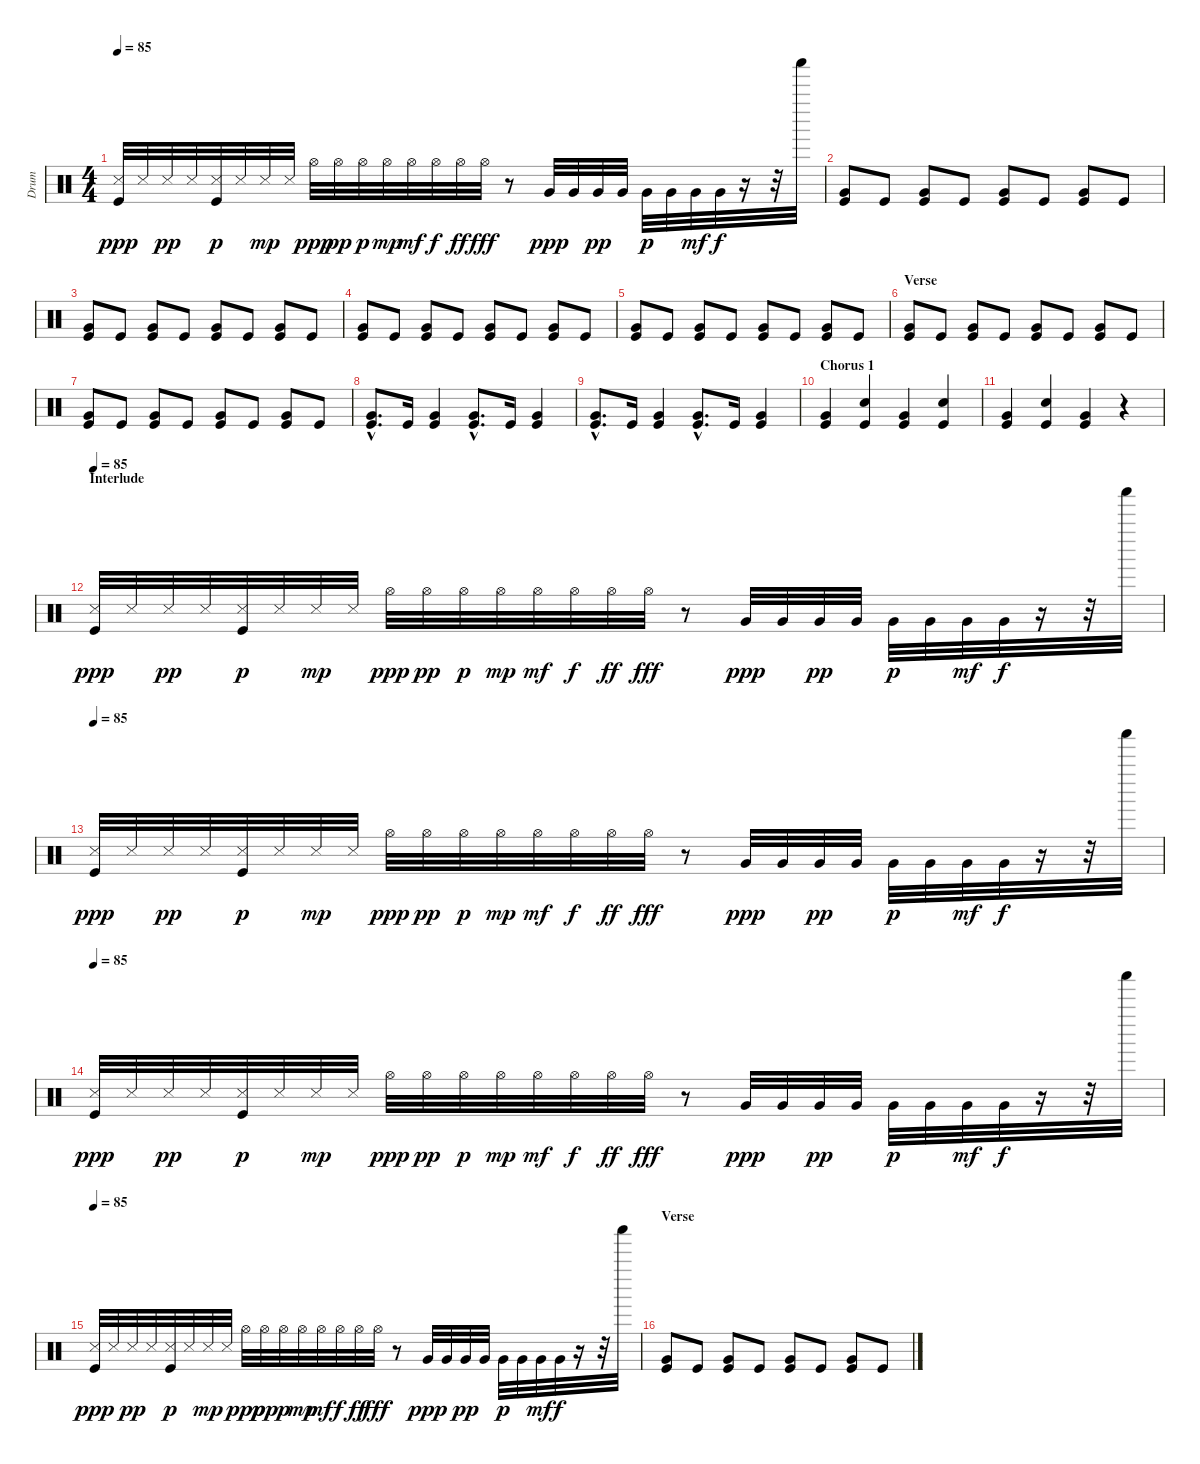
\track ("Drum" "Drum") {instrument percussion}
\staff {score}
\articulation defaults
\ts (4 4)
\tempo 85
\clef neutral
\ks c
("Snare (side stick) 3" "Kick (hit)").32{dy ppp} "Snare (side stick) 3".32 "Snare (side stick) 3".32{dy pp} "Snare (side stick) 3".32 ("Snare (side stick) 3" "Kick (hit)").32{dy p} "Snare (side stick) 3".32 "Snare (side stick) 3".32{dy mp} "Snare (side stick) 3".32 "Hi-Hat (open)".32{dy ppp} "Hi-Hat (open)".32{dy pp} "Hi-Hat (open)".32{dy p} "Hi-Hat (open)".32{dy mp} "Hi-Hat (open)".32{dy mf} "Hi-Hat (open)".32{dy f} "Hi-Hat (open)".32{dy ff} "Hi-Hat (open)".32{dy fff} r.8 "Very Low Tom (hit)".32{dy ppp} "Very Low Tom (hit)".32 "Very Low Tom (hit)".32{dy pp} "Very Low Tom (hit)".32 "Very Low Tom (hit)".32{dy p} "Very Low Tom (hit)".32 "Very Low Tom (hit)".32{dy mf} "Very Low Tom (hit)".32{dy f} r.16 r.32 "Shaker (hit)".32 |
("Very Low Tom (hit)" "Kick (hit)").8 "Kick (hit)".8 ("Very Low Tom (hit)" "Kick (hit)").8 "Kick (hit)".8 ("Very Low Tom (hit)" "Kick (hit)").8 "Kick (hit)".8 ("Very Low Tom (hit)" "Kick (hit)").8 "Kick (hit)".8 |
("Very Low Tom (hit)" "Kick (hit)").8 "Kick (hit)".8 ("Very Low Tom (hit)" "Kick (hit)").8 "Kick (hit)".8 ("Very Low Tom (hit)" "Kick (hit)").8 "Kick (hit)".8 ("Very Low Tom (hit)" "Kick (hit)").8 "Kick (hit)".8 |
("Very Low Tom (hit)" "Kick (hit)").8 "Kick (hit)".8 ("Very Low Tom (hit)" "Kick (hit)").8 "Kick (hit)".8 ("Very Low Tom (hit)" "Kick (hit)").8 "Kick (hit)".8 ("Very Low Tom (hit)" "Kick (hit)").8 "Kick (hit)".8 |
("Very Low Tom (hit)" "Kick (hit)").8 "Kick (hit)".8 ("Very Low Tom (hit)" "Kick (hit)").8 "Kick (hit)".8 ("Very Low Tom (hit)" "Kick (hit)").8 "Kick (hit)".8 ("Very Low Tom (hit)" "Kick (hit)").8 "Kick (hit)".8 |
\section ("" "Verse")
("Very Low Tom (hit)" "Kick (hit)").8 "Kick (hit)".8 ("Very Low Tom (hit)" "Kick (hit)").8 "Kick (hit)".8 ("Very Low Tom (hit)" "Kick (hit)").8 "Kick (hit)".8 ("Very Low Tom (hit)" "Kick (hit)").8 "Kick (hit)".8 |
("Very Low Tom (hit)" "Kick (hit)").8 "Kick (hit)".8 ("Very Low Tom (hit)" "Kick (hit)").8 "Kick (hit)".8 ("Very Low Tom (hit)" "Kick (hit)").8 "Kick (hit)".8 ("Very Low Tom (hit)" "Kick (hit)").8 "Kick (hit)".8 |
("Very Low Tom (hit)"{hac} "Kick (hit)"{hac}).8{d} "Kick (hit)".16 ("Very Low Tom (hit)" "Kick (hit)").4 ("Very Low Tom (hit)"{hac} "Kick (hit)"{hac}).8{d} "Kick (hit)".16 ("Very Low Tom (hit)" "Kick (hit)").4 |
("Very Low Tom (hit)"{hac} "Kick (hit)"{hac}).8{d} "Kick (hit)".16 ("Very Low Tom (hit)" "Kick (hit)").4 ("Very Low Tom (hit)"{hac} "Kick (hit)"{hac}).8{d} "Kick (hit)".16 ("Very Low Tom (hit)" "Kick (hit)").4 |
\section ("" "Chorus 1")
("Very Low Tom (hit)" "Kick (hit)").4 ("Snare (hit) 2" "Kick (hit)").4 ("Very Low Tom (hit)" "Kick (hit)").4 ("Snare (hit) 2" "Kick (hit)").4 |
("Very Low Tom (hit)" "Kick (hit)").4 ("Snare (hit) 2" "Kick (hit)").4 ("Very Low Tom (hit)" "Kick (hit)").4 r.4 |
\section ("" "Interlude")
\tempo 85
("Snare (side stick) 3" "Kick (hit)").32{dy ppp} "Snare (side stick) 3".32 "Snare (side stick) 3".32{dy pp} "Snare (side stick) 3".32 ("Snare (side stick) 3" "Kick (hit)").32{dy p} "Snare (side stick) 3".32 "Snare (side stick) 3".32{dy mp} "Snare (side stick) 3".32 "Hi-Hat (open)".32{dy ppp} "Hi-Hat (open)".32{dy pp} "Hi-Hat (open)".32{dy p} "Hi-Hat (open)".32{dy mp} "Hi-Hat (open)".32{dy mf} "Hi-Hat (open)".32{dy f} "Hi-Hat (open)".32{dy ff} "Hi-Hat (open)".32{dy fff} r.8 "Very Low Tom (hit)".32{dy ppp} "Very Low Tom (hit)".32 "Very Low Tom (hit)".32{dy pp} "Very Low Tom (hit)".32 "Very Low Tom (hit)".32{dy p} "Very Low Tom (hit)".32 "Very Low Tom (hit)".32{dy mf} "Very Low Tom (hit)".32{dy f} r.16 r.32 "Shaker (hit)".32 |
\tempo 85
("Snare (side stick) 3" "Kick (hit)").32{dy ppp} "Snare (side stick) 3".32 "Snare (side stick) 3".32{dy pp} "Snare (side stick) 3".32 ("Snare (side stick) 3" "Kick (hit)").32{dy p} "Snare (side stick) 3".32 "Snare (side stick) 3".32{dy mp} "Snare (side stick) 3".32 "Hi-Hat (open)".32{dy ppp} "Hi-Hat (open)".32{dy pp} "Hi-Hat (open)".32{dy p} "Hi-Hat (open)".32{dy mp} "Hi-Hat (open)".32{dy mf} "Hi-Hat (open)".32{dy f} "Hi-Hat (open)".32{dy ff} "Hi-Hat (open)".32{dy fff} r.8 "Very Low Tom (hit)".32{dy ppp} "Very Low Tom (hit)".32 "Very Low Tom (hit)".32{dy pp} "Very Low Tom (hit)".32 "Very Low Tom (hit)".32{dy p} "Very Low Tom (hit)".32 "Very Low Tom (hit)".32{dy mf} "Very Low Tom (hit)".32{dy f} r.16 r.32 "Shaker (hit)".32 |
\tempo 85
("Snare (side stick) 3" "Kick (hit)").32{dy ppp} "Snare (side stick) 3".32 "Snare (side stick) 3".32{dy pp} "Snare (side stick) 3".32 ("Snare (side stick) 3" "Kick (hit)").32{dy p} "Snare (side stick) 3".32 "Snare (side stick) 3".32{dy mp} "Snare (side stick) 3".32 "Hi-Hat (open)".32{dy ppp} "Hi-Hat (open)".32{dy pp} "Hi-Hat (open)".32{dy p} "Hi-Hat (open)".32{dy mp} "Hi-Hat (open)".32{dy mf} "Hi-Hat (open)".32{dy f} "Hi-Hat (open)".32{dy ff} "Hi-Hat (open)".32{dy fff} r.8 "Very Low Tom (hit)".32{dy ppp} "Very Low Tom (hit)".32 "Very Low Tom (hit)".32{dy pp} "Very Low Tom (hit)".32 "Very Low Tom (hit)".32{dy p} "Very Low Tom (hit)".32 "Very Low Tom (hit)".32{dy mf} "Very Low Tom (hit)".32{dy f} r.16 r.32 "Shaker (hit)".32 |
\tempo 85
("Snare (side stick) 3" "Kick (hit)").32{dy ppp} "Snare (side stick) 3".32 "Snare (side stick) 3".32{dy pp} "Snare (side stick) 3".32 ("Snare (side stick) 3" "Kick (hit)").32{dy p} "Snare (side stick) 3".32 "Snare (side stick) 3".32{dy mp} "Snare (side stick) 3".32 "Hi-Hat (open)".32{dy ppp} "Hi-Hat (open)".32{dy pp} "Hi-Hat (open)".32{dy p} "Hi-Hat (open)".32{dy mp} "Hi-Hat (open)".32{dy mf} "Hi-Hat (open)".32{dy f} "Hi-Hat (open)".32{dy ff} "Hi-Hat (open)".32{dy fff} r.8 "Very Low Tom (hit)".32{dy ppp} "Very Low Tom (hit)".32 "Very Low Tom (hit)".32{dy pp} "Very Low Tom (hit)".32 "Very Low Tom (hit)".32{dy p} "Very Low Tom (hit)".32 "Very Low Tom (hit)".32{dy mf} "Very Low Tom (hit)".32{dy f} r.16 r.32 "Shaker (hit)".32 |
\section ("" "Verse")
("Very Low Tom (hit)" "Kick (hit)").8 "Kick (hit)".8 ("Very Low Tom (hit)" "Kick (hit)").8 "Kick (hit)".8 ("Very Low Tom (hit)" "Kick (hit)").8 "Kick (hit)".8 ("Very Low Tom (hit)" "Kick (hit)").8 "Kick (hit)".8
